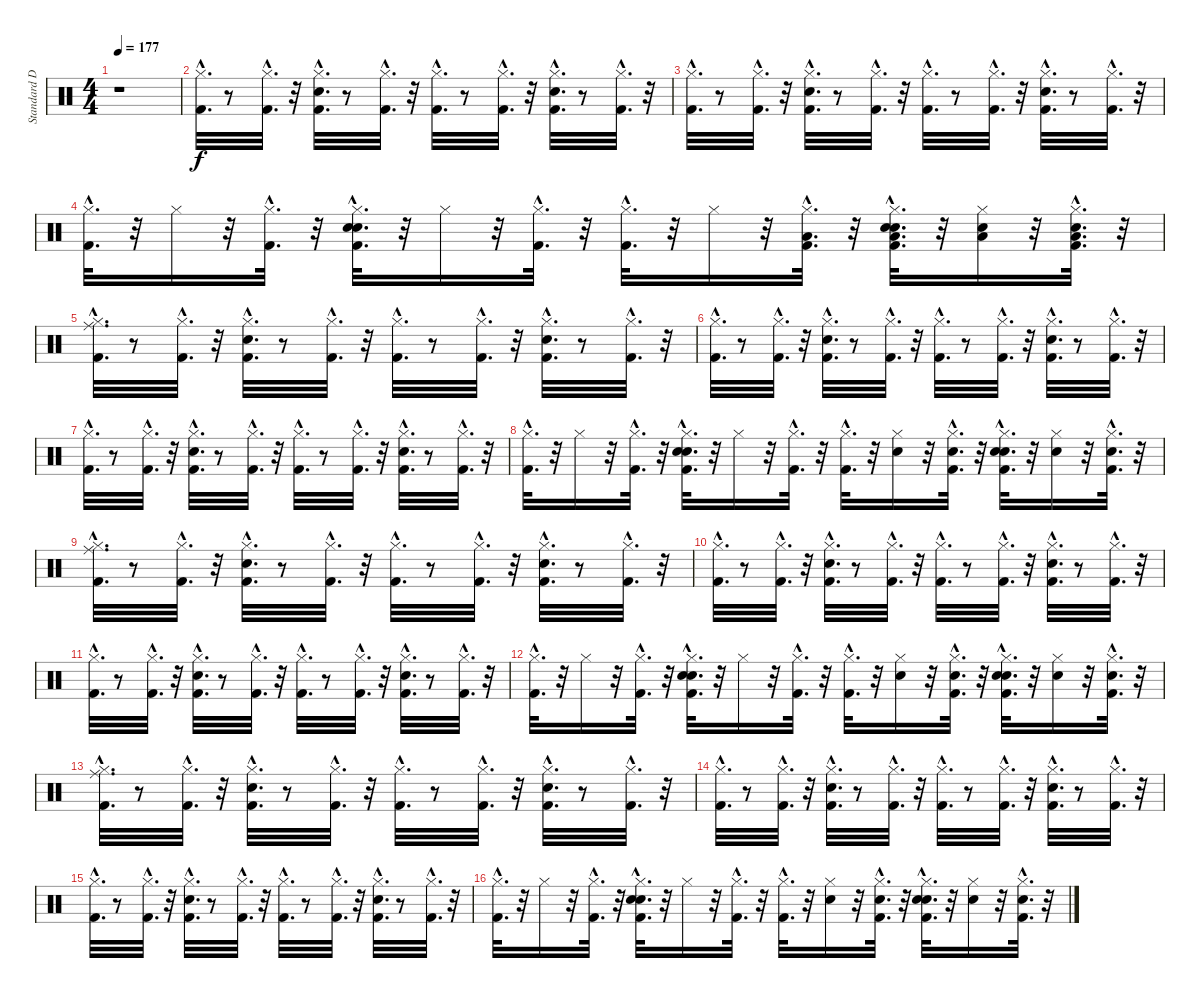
\track ("Standard Drums" "Standard D") {instrument percussion}
\staff {score}
\articulation defaults
\ts (4 4)
\tempo 177
\clef neutral
\ks c
r.1{dy f} |
("Kick (hit) 2"{hac} "Hi-Hat (closed)"{hac}).32{d} r.8 ("Kick (hit) 2"{hac} "Hi-Hat (closed)"{hac}).32{d} r.32 ("Kick (hit) 2"{hac} "Snare (hit) 2"{hac} "Hi-Hat (closed)"{hac}).32{d} r.8 ("Kick (hit) 2"{hac} "Hi-Hat (closed)"{hac}).32{d} r.32 ("Kick (hit) 2"{hac} "Hi-Hat (closed)"{hac}).32{d} r.8 ("Kick (hit) 2"{hac} "Hi-Hat (closed)"{hac}).32{d} r.32 ("Kick (hit) 2"{hac} "Snare (hit) 2"{hac} "Hi-Hat (closed)"{hac}).32{d} r.8 ("Kick (hit) 2"{hac} "Hi-Hat (closed)"{hac}).32{d} r.32 |
("Kick (hit) 2"{hac} "Hi-Hat (closed)"{hac}).32{d} r.8 ("Kick (hit) 2"{hac} "Hi-Hat (closed)"{hac}).32{d} r.32 ("Kick (hit) 2"{hac} "Snare (hit) 2"{hac} "Hi-Hat (closed)"{hac}).32{d} r.8 ("Kick (hit) 2"{hac} "Hi-Hat (closed)"{hac}).32{d} r.32 ("Kick (hit) 2"{hac} "Hi-Hat (closed)"{hac}).32{d} r.8 ("Kick (hit) 2"{hac} "Hi-Hat (closed)"{hac}).32{d} r.32 ("Kick (hit) 2"{hac} "Snare (hit) 2"{hac} "Hi-Hat (closed)"{hac}).32{d} r.8 ("Kick (hit) 2"{hac} "Hi-Hat (closed)"{hac}).32{d} r.32 |
("Kick (hit) 2"{hac} "Hi-Hat (closed)"{hac}).32{d} r.32 "Hi-Hat (closed)".16 r.32 ("Kick (hit) 2"{hac} "Hi-Hat (closed)"{hac}).32{d} r.32 ("Kick (hit) 2"{hac} "Snare (hit) 2"{hac} "Hi-Hat (closed)"{hac} "Hand Clap (hit)"{hac}).32{d} r.32 "Hi-Hat (closed)".16 r.32 ("Kick (hit) 2"{hac} "Hi-Hat (closed)"{hac}).32{d} r.32 ("Kick (hit) 2"{hac} "Hi-Hat (closed)"{hac}).32{d} r.32 "Hi-Hat (closed)".16 r.32 ("Kick (hit) 2"{hac} "Hi-Hat (closed)"{hac} "Low Tom (hit)"{hac}).32{d} r.32 ("Kick (hit) 2"{hac} "Snare (hit) 2"{hac} "Hi-Hat (closed)"{hac} "Low Tom (hit)"{hac} "Hand Clap (hit)"{hac}).32{d} r.32 ("Snare (hit) 2" "Hi-Hat (closed)" "Low Tom (hit)").16 r.32 ("Kick (hit) 2"{hac} "Snare (hit) 2"{hac} "Hi-Hat (closed)"{hac} "Low Tom (hit)"{hac}).32{d} r.32 |
("Kick (hit) 2"{hac} "Hi-Hat (closed)"{hac} "Ride (middle)"{hac}).32{d} r.8 ("Kick (hit) 2"{hac} "Hi-Hat (closed)"{hac}).32{d} r.32 ("Kick (hit) 2"{hac} "Snare (hit) 2"{hac} "Hi-Hat (closed)"{hac}).32{d} r.8 ("Kick (hit) 2"{hac} "Hi-Hat (closed)"{hac}).32{d} r.32 ("Kick (hit) 2"{hac} "Hi-Hat (closed)"{hac}).32{d} r.8 ("Kick (hit) 2"{hac} "Hi-Hat (closed)"{hac}).32{d} r.32 ("Kick (hit) 2"{hac} "Snare (hit) 2"{hac} "Hi-Hat (closed)"{hac}).32{d} r.8 ("Kick (hit) 2"{hac} "Hi-Hat (closed)"{hac}).32{d} r.32 |
("Kick (hit) 2"{hac} "Hi-Hat (closed)"{hac}).32{d} r.8 ("Kick (hit) 2"{hac} "Hi-Hat (closed)"{hac}).32{d} r.32 ("Kick (hit) 2"{hac} "Snare (hit) 2"{hac} "Hi-Hat (closed)"{hac}).32{d} r.8 ("Kick (hit) 2"{hac} "Hi-Hat (closed)"{hac}).32{d} r.32 ("Kick (hit) 2"{hac} "Hi-Hat (closed)"{hac}).32{d} r.8 ("Kick (hit) 2"{hac} "Hi-Hat (closed)"{hac}).32{d} r.32 ("Kick (hit) 2"{hac} "Snare (hit) 2"{hac} "Hi-Hat (closed)"{hac}).32{d} r.8 ("Kick (hit) 2"{hac} "Hi-Hat (closed)"{hac}).32{d} r.32 |
("Kick (hit) 2"{hac} "Hi-Hat (closed)"{hac}).32{d} r.8 ("Kick (hit) 2"{hac} "Hi-Hat (closed)"{hac}).32{d} r.32 ("Kick (hit) 2"{hac} "Snare (hit) 2"{hac} "Hi-Hat (closed)"{hac}).32{d} r.8 ("Kick (hit) 2"{hac} "Hi-Hat (closed)"{hac}).32{d} r.32 ("Kick (hit) 2"{hac} "Hi-Hat (closed)"{hac}).32{d} r.8 ("Kick (hit) 2"{hac} "Hi-Hat (closed)"{hac}).32{d} r.32 ("Kick (hit) 2"{hac} "Snare (hit) 2"{hac} "Hi-Hat (closed)"{hac}).32{d} r.8 ("Kick (hit) 2"{hac} "Hi-Hat (closed)"{hac}).32{d} r.32 |
("Kick (hit) 2"{hac} "Hi-Hat (closed)"{hac}).32{d} r.32 "Hi-Hat (closed)".16 r.32 ("Kick (hit) 2"{hac} "Hi-Hat (closed)"{hac}).32{d} r.32 ("Kick (hit) 2"{hac} "Snare (hit) 2"{hac} "Hi-Hat (closed)"{hac} "Hand Clap (hit)"{hac}).32{d} r.32 "Hi-Hat (closed)".16 r.32 ("Kick (hit) 2"{hac} "Hi-Hat (closed)"{hac}).32{d} r.32 ("Kick (hit) 2"{hac} "Hi-Hat (closed)"{hac}).32{d} r.32 ("Snare (hit) 2" "Hi-Hat (closed)").16 r.32 ("Kick (hit) 2"{hac} "Snare (hit) 2"{hac} "Hi-Hat (closed)"{hac}).32{d} r.32 ("Kick (hit) 2"{hac} "Snare (hit) 2"{hac} "Hi-Hat (closed)"{hac} "Hand Clap (hit)"{hac}).32{d} r.32 ("Snare (hit) 2" "Hi-Hat (closed)").16 r.32 ("Kick (hit) 2"{hac} "Snare (hit) 2"{hac} "Hi-Hat (closed)"{hac}).32{d} r.32 |
("Kick (hit) 2"{hac} "Hi-Hat (closed)"{hac} "Ride (middle)"{hac}).32{d} r.8 ("Kick (hit) 2"{hac} "Hi-Hat (closed)"{hac}).32{d} r.32 ("Kick (hit) 2"{hac} "Snare (hit) 2"{hac} "Hi-Hat (closed)"{hac}).32{d} r.8 ("Kick (hit) 2"{hac} "Hi-Hat (closed)"{hac}).32{d} r.32 ("Kick (hit) 2"{hac} "Hi-Hat (closed)"{hac}).32{d} r.8 ("Kick (hit) 2"{hac} "Hi-Hat (closed)"{hac}).32{d} r.32 ("Kick (hit) 2"{hac} "Snare (hit) 2"{hac} "Hi-Hat (closed)"{hac}).32{d} r.8 ("Kick (hit) 2"{hac} "Hi-Hat (closed)"{hac}).32{d} r.32 |
("Kick (hit) 2"{hac} "Hi-Hat (closed)"{hac}).32{d} r.8 ("Kick (hit) 2"{hac} "Hi-Hat (closed)"{hac}).32{d} r.32 ("Kick (hit) 2"{hac} "Snare (hit) 2"{hac} "Hi-Hat (closed)"{hac}).32{d} r.8 ("Kick (hit) 2"{hac} "Hi-Hat (closed)"{hac}).32{d} r.32 ("Kick (hit) 2"{hac} "Hi-Hat (closed)"{hac}).32{d} r.8 ("Kick (hit) 2"{hac} "Hi-Hat (closed)"{hac}).32{d} r.32 ("Kick (hit) 2"{hac} "Snare (hit) 2"{hac} "Hi-Hat (closed)"{hac}).32{d} r.8 ("Kick (hit) 2"{hac} "Hi-Hat (closed)"{hac}).32{d} r.32 |
("Kick (hit) 2"{hac} "Hi-Hat (closed)"{hac}).32{d} r.8 ("Kick (hit) 2"{hac} "Hi-Hat (closed)"{hac}).32{d} r.32 ("Kick (hit) 2"{hac} "Snare (hit) 2"{hac} "Hi-Hat (closed)"{hac}).32{d} r.8 ("Kick (hit) 2"{hac} "Hi-Hat (closed)"{hac}).32{d} r.32 ("Kick (hit) 2"{hac} "Hi-Hat (closed)"{hac}).32{d} r.8 ("Kick (hit) 2"{hac} "Hi-Hat (closed)"{hac}).32{d} r.32 ("Kick (hit) 2"{hac} "Snare (hit) 2"{hac} "Hi-Hat (closed)"{hac}).32{d} r.8 ("Kick (hit) 2"{hac} "Hi-Hat (closed)"{hac}).32{d} r.32 |
("Kick (hit) 2"{hac} "Hi-Hat (closed)"{hac}).32{d} r.32 "Hi-Hat (closed)".16 r.32 ("Kick (hit) 2"{hac} "Hi-Hat (closed)"{hac}).32{d} r.32 ("Kick (hit) 2"{hac} "Snare (hit) 2"{hac} "Hi-Hat (closed)"{hac} "Hand Clap (hit)"{hac}).32{d} r.32 "Hi-Hat (closed)".16 r.32 ("Kick (hit) 2"{hac} "Hi-Hat (closed)"{hac}).32{d} r.32 ("Kick (hit) 2"{hac} "Hi-Hat (closed)"{hac}).32{d} r.32 ("Snare (hit) 2" "Hi-Hat (closed)").16 r.32 ("Kick (hit) 2"{hac} "Snare (hit) 2"{hac} "Hi-Hat (closed)"{hac}).32{d} r.32 ("Kick (hit) 2"{hac} "Snare (hit) 2"{hac} "Hi-Hat (closed)"{hac} "Hand Clap (hit)"{hac}).32{d} r.32 ("Snare (hit) 2" "Hi-Hat (closed)").16 r.32 ("Kick (hit) 2"{hac} "Snare (hit) 2"{hac} "Hi-Hat (closed)"{hac}).32{d} r.32 |
("Kick (hit) 2"{hac} "Hi-Hat (closed)"{hac} "Ride (middle)"{hac}).32{d} r.8 ("Kick (hit) 2"{hac} "Hi-Hat (closed)"{hac}).32{d} r.32 ("Kick (hit) 2"{hac} "Snare (hit) 2"{hac} "Hi-Hat (closed)"{hac}).32{d} r.8 ("Kick (hit) 2"{hac} "Hi-Hat (closed)"{hac}).32{d} r.32 ("Kick (hit) 2"{hac} "Hi-Hat (closed)"{hac}).32{d} r.8 ("Kick (hit) 2"{hac} "Hi-Hat (closed)"{hac}).32{d} r.32 ("Kick (hit) 2"{hac} "Snare (hit) 2"{hac} "Hi-Hat (closed)"{hac}).32{d} r.8 ("Kick (hit) 2"{hac} "Hi-Hat (closed)"{hac}).32{d} r.32 |
("Kick (hit) 2"{hac} "Hi-Hat (closed)"{hac}).32{d} r.8 ("Kick (hit) 2"{hac} "Hi-Hat (closed)"{hac}).32{d} r.32 ("Kick (hit) 2"{hac} "Snare (hit) 2"{hac} "Hi-Hat (closed)"{hac}).32{d} r.8 ("Kick (hit) 2"{hac} "Hi-Hat (closed)"{hac}).32{d} r.32 ("Kick (hit) 2"{hac} "Hi-Hat (closed)"{hac}).32{d} r.8 ("Kick (hit) 2"{hac} "Hi-Hat (closed)"{hac}).32{d} r.32 ("Kick (hit) 2"{hac} "Snare (hit) 2"{hac} "Hi-Hat (closed)"{hac}).32{d} r.8 ("Kick (hit) 2"{hac} "Hi-Hat (closed)"{hac}).32{d} r.32 |
("Kick (hit) 2"{hac} "Hi-Hat (closed)"{hac}).32{d} r.8 ("Kick (hit) 2"{hac} "Hi-Hat (closed)"{hac}).32{d} r.32 ("Kick (hit) 2"{hac} "Snare (hit) 2"{hac} "Hi-Hat (closed)"{hac}).32{d} r.8 ("Kick (hit) 2"{hac} "Hi-Hat (closed)"{hac}).32{d} r.32 ("Kick (hit) 2"{hac} "Hi-Hat (closed)"{hac}).32{d} r.8 ("Kick (hit) 2"{hac} "Hi-Hat (closed)"{hac}).32{d} r.32 ("Kick (hit) 2"{hac} "Snare (hit) 2"{hac} "Hi-Hat (closed)"{hac}).32{d} r.8 ("Kick (hit) 2"{hac} "Hi-Hat (closed)"{hac}).32{d} r.32 |
("Kick (hit) 2"{hac} "Hi-Hat (closed)"{hac}).32{d} r.32 "Hi-Hat (closed)".16 r.32 ("Kick (hit) 2"{hac} "Hi-Hat (closed)"{hac}).32{d} r.32 ("Kick (hit) 2"{hac} "Snare (hit) 2"{hac} "Hi-Hat (closed)"{hac} "Hand Clap (hit)"{hac}).32{d} r.32 "Hi-Hat (closed)".16 r.32 ("Kick (hit) 2"{hac} "Hi-Hat (closed)"{hac}).32{d} r.32 ("Kick (hit) 2"{hac} "Hi-Hat (closed)"{hac}).32{d} r.32 ("Snare (hit) 2" "Hi-Hat (closed)").16 r.32 ("Kick (hit) 2"{hac} "Snare (hit) 2"{hac} "Hi-Hat (closed)"{hac}).32{d} r.32 ("Kick (hit) 2"{hac} "Snare (hit) 2"{hac} "Hi-Hat (closed)"{hac} "Hand Clap (hit)"{hac}).32{d} r.32 ("Snare (hit) 2" "Hi-Hat (closed)").16 r.32 ("Kick (hit) 2"{hac} "Snare (hit) 2"{hac} "Hi-Hat (closed)"{hac}).32{d} r.32
